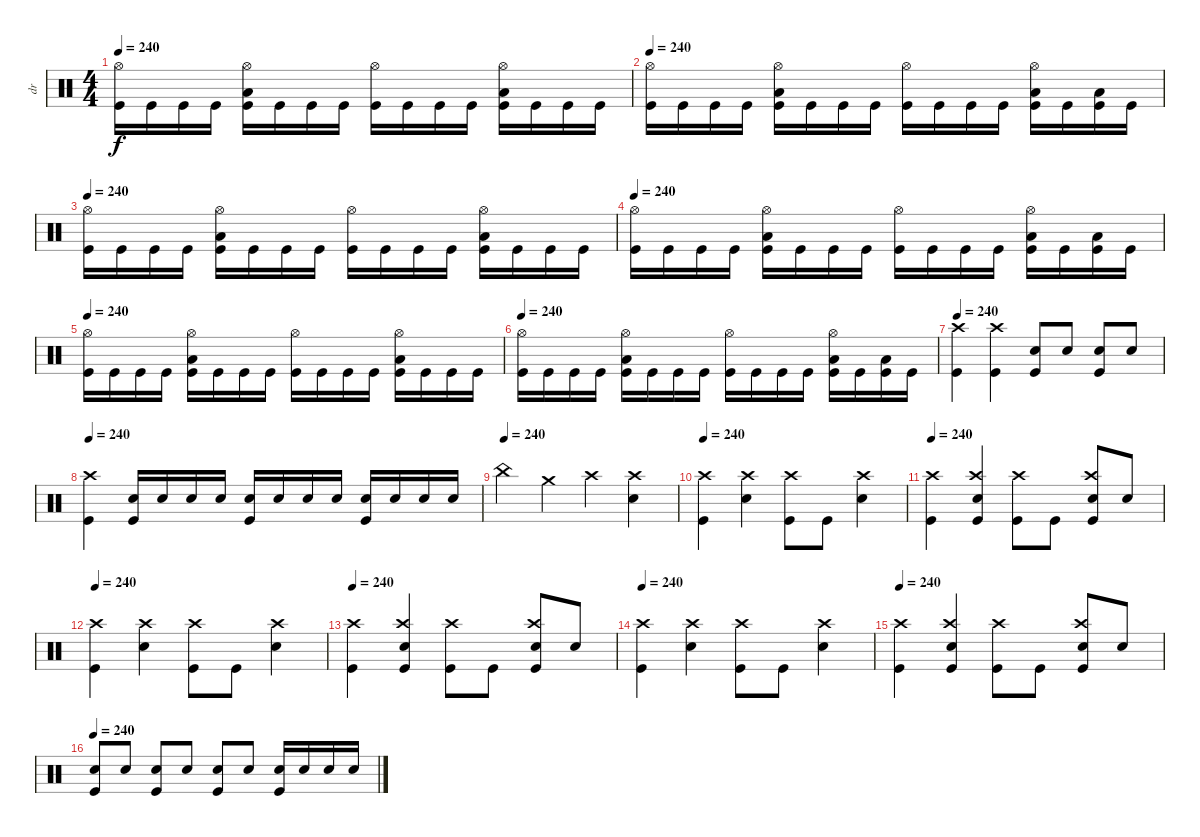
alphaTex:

\track ("dr" "dr") {instrument percussion}
\staff {score}
\articulation defaults
\ts (4 4)
\tempo 240
\clef neutral
\ks c
("Hi-Hat (open)" "Kick (hit)").16{dy f} "Kick (hit)".16 "Kick (hit)".16 "Kick (hit)".16 ("Hi-Hat (open)" "Low Floor Tom (hit)" "Kick (hit)").16 "Kick (hit)".16 "Kick (hit)".16 "Kick (hit)".16 ("Hi-Hat (open)" "Kick (hit)").16 "Kick (hit)".16 "Kick (hit)".16 "Kick (hit)".16 ("Hi-Hat (open)" "Low Floor Tom (hit)" "Kick (hit)").16 "Kick (hit)".16 "Kick (hit)".16 "Kick (hit)".16 |
\tempo 240
("Hi-Hat (open)" "Kick (hit)").16 "Kick (hit)".16 "Kick (hit)".16 "Kick (hit)".16 ("Hi-Hat (open)" "Low Floor Tom (hit)" "Kick (hit)").16 "Kick (hit)".16 "Kick (hit)".16 "Kick (hit)".16 ("Hi-Hat (open)" "Kick (hit)").16 "Kick (hit)".16 "Kick (hit)".16 "Kick (hit)".16 ("Hi-Hat (open)" "Low Floor Tom (hit)" "Kick (hit)").16 "Kick (hit)".16 ("Low Floor Tom (hit)" "Kick (hit)").16 "Kick (hit)".16 |
\tempo 240
("Hi-Hat (open)" "Kick (hit)").16 "Kick (hit)".16 "Kick (hit)".16 "Kick (hit)".16 ("Hi-Hat (open)" "Low Floor Tom (hit)" "Kick (hit)").16 "Kick (hit)".16 "Kick (hit)".16 "Kick (hit)".16 ("Hi-Hat (open)" "Kick (hit)").16 "Kick (hit)".16 "Kick (hit)".16 "Kick (hit)".16 ("Hi-Hat (open)" "Low Floor Tom (hit)" "Kick (hit)").16 "Kick (hit)".16 "Kick (hit)".16 "Kick (hit)".16 |
\tempo 240
("Hi-Hat (open)" "Kick (hit)").16 "Kick (hit)".16 "Kick (hit)".16 "Kick (hit)".16 ("Hi-Hat (open)" "Low Floor Tom (hit)" "Kick (hit)").16 "Kick (hit)".16 "Kick (hit)".16 "Kick (hit)".16 ("Hi-Hat (open)" "Kick (hit)").16 "Kick (hit)".16 "Kick (hit)".16 "Kick (hit)".16 ("Hi-Hat (open)" "Low Floor Tom (hit)" "Kick (hit)").16 "Kick (hit)".16 ("Low Floor Tom (hit)" "Kick (hit)").16 "Kick (hit)".16 |
\tempo 240
("Hi-Hat (open)" "Kick (hit)").16 "Kick (hit)".16 "Kick (hit)".16 "Kick (hit)".16 ("Hi-Hat (open)" "Low Floor Tom (hit)" "Kick (hit)").16 "Kick (hit)".16 "Kick (hit)".16 "Kick (hit)".16 ("Hi-Hat (open)" "Kick (hit)").16 "Kick (hit)".16 "Kick (hit)".16 "Kick (hit)".16 ("Hi-Hat (open)" "Low Floor Tom (hit)" "Kick (hit)").16 "Kick (hit)".16 "Kick (hit)".16 "Kick (hit)".16 |
\tempo 240
("Hi-Hat (open)" "Kick (hit)").16 "Kick (hit)".16 "Kick (hit)".16 "Kick (hit)".16 ("Hi-Hat (open)" "Low Floor Tom (hit)" "Kick (hit)").16 "Kick (hit)".16 "Kick (hit)".16 "Kick (hit)".16 ("Hi-Hat (open)" "Kick (hit)").16 "Kick (hit)".16 "Kick (hit)".16 "Kick (hit)".16 ("Hi-Hat (open)" "Low Floor Tom (hit)" "Kick (hit)").16 "Kick (hit)".16 ("Low Floor Tom (hit)" "Kick (hit)").16 "Kick (hit)".16 |
\tempo 240
("Crash high (hit)" "Kick (hit)").4 ("Crash high (hit)" "Kick (hit)").4 ("Electric Snare (hit)" "Kick (hit)").8 "Electric Snare (hit)".8 ("Electric Snare (hit)" "Kick (hit)").8 "Electric Snare (hit)".8 |
\tempo 240
("Crash high (hit)" "Kick (hit)").4 ("Electric Snare (hit)" "Kick (hit)").16 "Electric Snare (hit)".16 "Electric Snare (hit)".16 "Electric Snare (hit)".16 ("Electric Snare (hit)" "Kick (hit)").16 "Electric Snare (hit)".16 "Electric Snare (hit)".16 "Electric Snare (hit)".16 ("Snare (hit) 2" "Kick (hit)").16 "Snare (hit) 2".16 "Snare (hit) 2".16 "Snare (hit) 2".16 |
\tempo (240)
"China (hit)".4 "Crash medium (hit)".4 "Crash high (hit)".4 ("Crash high (hit)" "Snare (hit) 2").4 |
\tempo 240
("Crash high (hit)" "Kick (hit)").4 ("Crash high (hit)" "Snare (hit) 2").4 ("Crash high (hit)" "Kick (hit)").8 "Kick (hit)".8 ("Crash high (hit)" "Snare (hit) 2").4 |
\tempo 240
("Crash high (hit)" "Kick (hit)").4 ("Crash high (hit)" "Snare (hit) 2" "Kick (hit)").4 ("Crash high (hit)" "Kick (hit)").8 "Kick (hit)".8 ("Crash high (hit)" "Snare (hit) 2" "Kick (hit)").8 "Snare (hit) 2".8 |
\tempo 240
("Crash high (hit)" "Kick (hit)").4 ("Crash high (hit)" "Snare (hit) 2").4 ("Crash high (hit)" "Kick (hit)").8 "Kick (hit)".8 ("Crash high (hit)" "Snare (hit) 2").4 |
\tempo 240
("Crash high (hit)" "Kick (hit)").4 ("Crash high (hit)" "Snare (hit) 2" "Kick (hit)").4 ("Crash high (hit)" "Kick (hit)").8 "Kick (hit)".8 ("Crash high (hit)" "Snare (hit) 2" "Kick (hit)").8 "Snare (hit) 2".8 |
\tempo 240
("Crash high (hit)" "Kick (hit)").4 ("Crash high (hit)" "Snare (hit) 2").4 ("Crash high (hit)" "Kick (hit)").8 "Kick (hit)".8 ("Crash high (hit)" "Snare (hit) 2").4 |
\tempo 240
("Crash high (hit)" "Kick (hit)").4 ("Crash high (hit)" "Snare (hit) 2" "Kick (hit)").4 ("Crash high (hit)" "Kick (hit)").8 "Kick (hit)".8 ("Crash high (hit)" "Snare (hit) 2" "Kick (hit)").8 "Snare (hit) 2".8 |
\tempo 240
("Electric Snare (hit)" "Kick (hit)").8 "Electric Snare (hit)".8 ("Snare (hit) 2" "Kick (hit)").8 "Snare (hit) 2".8 ("Snare (hit) 2" "Kick (hit)").8 "Snare (hit) 2".8 ("Electric Snare (hit)" "Kick (hit)").16 "Electric Snare (hit)".16 "Electric Snare (hit)".16 "Electric Snare (hit)".16
